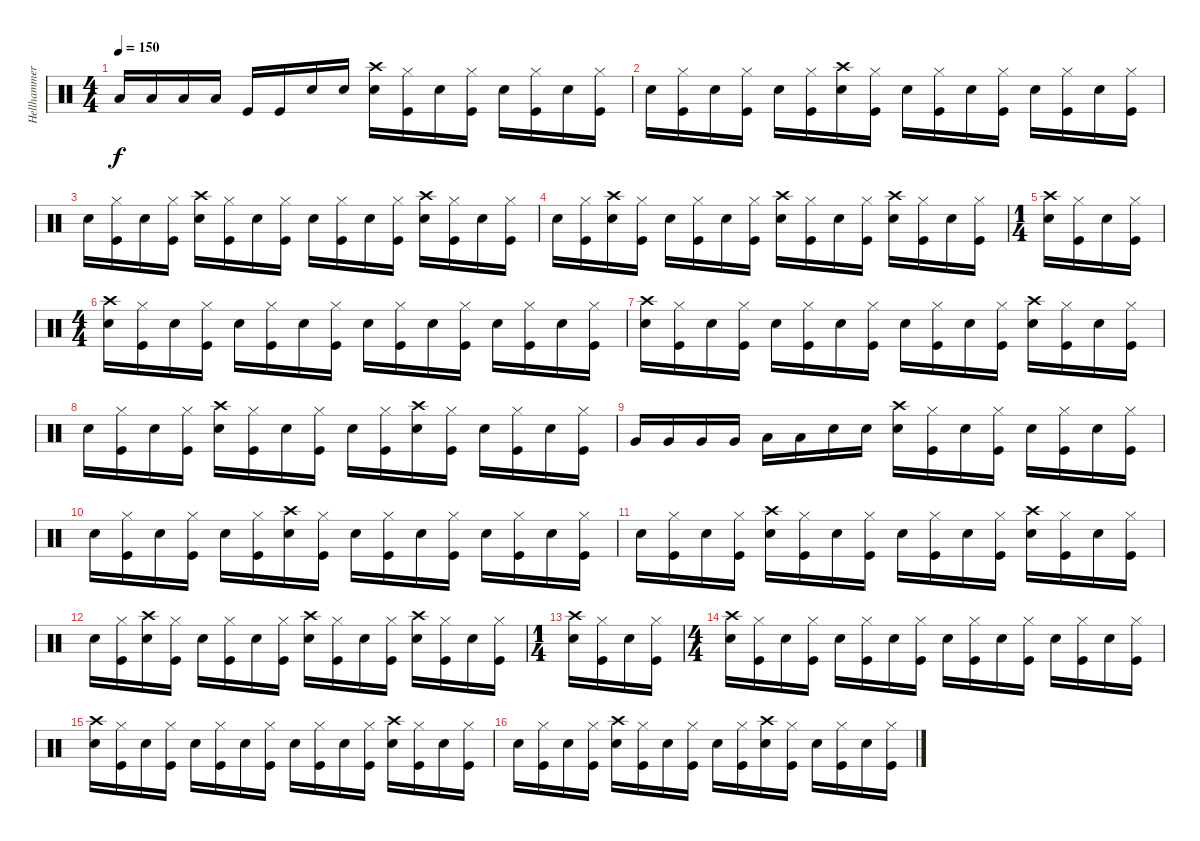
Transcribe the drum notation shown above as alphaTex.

\track ("Hellhammer" "Hellhammer") {instrument percussion}
\staff {score}
\articulation defaults
\ts (4 4)
\tempo 150
\clef neutral
\ks c "Low Floor Tom (hit)".16{dy f} "Low Floor Tom (hit)".16 "Low Floor Tom (hit)".16 "Low Floor Tom (hit)".16 "Kick (hit)".16 "Kick (hit)".16 "Snare (hit) 2".16 "Snare (hit) 2".16
("Snare (hit) 2" "Crash high (hit)").16 ("Kick (hit)" "Hi-Hat (closed)").16 "Snare (hit) 2".16 ("Kick (hit)" "Hi-Hat (closed)").16 "Snare (hit) 2".16 ("Kick (hit)" "Hi-Hat (closed)").16 "Snare (hit) 2".16 ("Kick (hit)" "Hi-Hat (closed)").16 |
"Snare (hit) 2".16 ("Kick (hit)" "Hi-Hat (closed)").16 "Snare (hit) 2".16 ("Kick (hit)" "Hi-Hat (closed)").16 "Snare (hit) 2".16 ("Kick (hit)" "Hi-Hat (closed)").16 ("Snare (hit) 2" "Crash high (hit)").16 ("Kick (hit)" "Hi-Hat (closed)").16 "Snare (hit) 2".16 ("Kick (hit)" "Hi-Hat (closed)").16 "Snare (hit) 2".16 ("Kick (hit)" "Hi-Hat (closed)").16 "Snare (hit) 2".16 ("Kick (hit)" "Hi-Hat (closed)").16 "Snare (hit) 2".16 ("Kick (hit)" "Hi-Hat (closed)").16 |
"Snare (hit) 2".16 ("Kick (hit)" "Hi-Hat (closed)").16 "Snare (hit) 2".16 ("Kick (hit)" "Hi-Hat (closed)").16 ("Snare (hit) 2" "Crash high (hit)").16 ("Kick (hit)" "Hi-Hat (closed)").16 "Snare (hit) 2".16 ("Kick (hit)" "Hi-Hat (closed)").16 "Snare (hit) 2".16 ("Kick (hit)" "Hi-Hat (closed)").16 "Snare (hit) 2".16 ("Kick (hit)" "Hi-Hat (closed)").16 ("Snare (hit) 2" "Crash high (hit)").16 ("Kick (hit)" "Hi-Hat (closed)").16 "Snare (hit) 2".16 ("Kick (hit)" "Hi-Hat (closed)").16 |
"Snare (hit) 2".16 ("Kick (hit)" "Hi-Hat (closed)").16 ("Snare (hit) 2" "Crash high (hit)").16 ("Kick (hit)" "Hi-Hat (closed)").16 "Snare (hit) 2".16 ("Kick (hit)" "Hi-Hat (closed)").16 "Snare (hit) 2".16 ("Kick (hit)" "Hi-Hat (closed)").16 ("Snare (hit) 2" "Crash high (hit)").16 ("Kick (hit)" "Hi-Hat (closed)").16 "Snare (hit) 2".16 ("Kick (hit)" "Hi-Hat (closed)").16 ("Snare (hit) 2" "Crash high (hit)").16 ("Kick (hit)" "Hi-Hat (closed)").16 "Snare (hit) 2".16 ("Kick (hit)" "Hi-Hat (closed)").16 |
\ts (1 4)
("Snare (hit) 2" "Crash high (hit)").16 ("Kick (hit)" "Hi-Hat (closed)").16 "Snare (hit) 2".16 ("Kick (hit)" "Hi-Hat (closed)").16 |
\ts (4 4)
("Snare (hit) 2" "Crash high (hit)").16 ("Kick (hit)" "Hi-Hat (closed)").16 "Snare (hit) 2".16 ("Kick (hit)" "Hi-Hat (closed)").16 "Snare (hit) 2".16 ("Kick (hit)" "Hi-Hat (closed)").16 "Snare (hit) 2".16 ("Kick (hit)" "Hi-Hat (closed)").16 "Snare (hit) 2".16 ("Kick (hit)" "Hi-Hat (closed)").16 "Snare (hit) 2".16 ("Kick (hit)" "Hi-Hat (closed)").16 "Snare (hit) 2".16 ("Kick (hit)" "Hi-Hat (closed)").16 "Snare (hit) 2".16 ("Kick (hit)" "Hi-Hat (closed)").16 |
("Snare (hit) 2" "Crash high (hit)").16 ("Kick (hit)" "Hi-Hat (closed)").16 "Snare (hit) 2".16 ("Kick (hit)" "Hi-Hat (closed)").16 "Snare (hit) 2".16 ("Kick (hit)" "Hi-Hat (closed)").16 "Snare (hit) 2".16 ("Kick (hit)" "Hi-Hat (closed)").16 "Snare (hit) 2".16 ("Kick (hit)" "Hi-Hat (closed)").16 "Snare (hit) 2".16 ("Kick (hit)" "Hi-Hat (closed)").16 ("Snare (hit) 2" "Crash high (hit)").16 ("Kick (hit)" "Hi-Hat (closed)").16 "Snare (hit) 2".16 ("Kick (hit)" "Hi-Hat (closed)").16 |
"Snare (hit) 2".16 ("Kick (hit)" "Hi-Hat (closed)").16 "Snare (hit) 2".16 ("Kick (hit)" "Hi-Hat (closed)").16 ("Snare (hit) 2" "Crash high (hit)").16 ("Kick (hit)" "Hi-Hat (closed)").16 "Snare (hit) 2".16 ("Kick (hit)" "Hi-Hat (closed)").16 "Snare (hit) 2".16 ("Kick (hit)" "Hi-Hat (closed)").16 ("Snare (hit) 2" "Crash high (hit)").16 ("Kick (hit)" "Hi-Hat (closed)").16 "Snare (hit) 2".16 ("Kick (hit)" "Hi-Hat (closed)").16 "Snare (hit) 2".16 ("Kick (hit)" "Hi-Hat (closed)").16 |
"Very Low Tom (hit)".16 "Very Low Tom (hit)".16 "Very Low Tom (hit)".16 "Very Low Tom (hit)".16 "Low Floor Tom (hit)".16 "Low Floor Tom (hit)".16 "Snare (hit) 2".16 "Snare (hit) 2".16 ("Snare (hit) 2" "Crash high (hit)").16 ("Kick (hit)" "Hi-Hat (closed)").16 "Snare (hit) 2".16 ("Kick (hit)" "Hi-Hat (closed)").16 "Snare (hit) 2".16 ("Kick (hit)" "Hi-Hat (closed)").16 "Snare (hit) 2".16 ("Kick (hit)" "Hi-Hat (closed)").16 |
"Snare (hit) 2".16 ("Kick (hit)" "Hi-Hat (closed)").16 "Snare (hit) 2".16 ("Kick (hit)" "Hi-Hat (closed)").16 "Snare (hit) 2".16 ("Kick (hit)" "Hi-Hat (closed)").16 ("Snare (hit) 2" "Crash high (hit)").16 ("Kick (hit)" "Hi-Hat (closed)").16 "Snare (hit) 2".16 ("Kick (hit)" "Hi-Hat (closed)").16 "Snare (hit) 2".16 ("Kick (hit)" "Hi-Hat (closed)").16 "Snare (hit) 2".16 ("Kick (hit)" "Hi-Hat (closed)").16 "Snare (hit) 2".16 ("Kick (hit)" "Hi-Hat (closed)").16 |
"Snare (hit) 2".16 ("Kick (hit)" "Hi-Hat (closed)").16 "Snare (hit) 2".16 ("Kick (hit)" "Hi-Hat (closed)").16 ("Snare (hit) 2" "Crash high (hit)").16 ("Kick (hit)" "Hi-Hat (closed)").16 "Snare (hit) 2".16 ("Kick (hit)" "Hi-Hat (closed)").16 "Snare (hit) 2".16 ("Kick (hit)" "Hi-Hat (closed)").16 "Snare (hit) 2".16 ("Kick (hit)" "Hi-Hat (closed)").16 ("Snare (hit) 2" "Crash high (hit)").16 ("Kick (hit)" "Hi-Hat (closed)").16 "Snare (hit) 2".16 ("Kick (hit)" "Hi-Hat (closed)").16 |
"Snare (hit) 2".16 ("Kick (hit)" "Hi-Hat (closed)").16 ("Snare (hit) 2" "Crash high (hit)").16 ("Kick (hit)" "Hi-Hat (closed)").16 "Snare (hit) 2".16 ("Kick (hit)" "Hi-Hat (closed)").16 "Snare (hit) 2".16 ("Kick (hit)" "Hi-Hat (closed)").16 ("Snare (hit) 2" "Crash high (hit)").16 ("Kick (hit)" "Hi-Hat (closed)").16 "Snare (hit) 2".16 ("Kick (hit)" "Hi-Hat (closed)").16 ("Snare (hit) 2" "Crash high (hit)").16 ("Kick (hit)" "Hi-Hat (closed)").16 "Snare (hit) 2".16 ("Kick (hit)" "Hi-Hat (closed)").16 |
\ts (1 4)
("Snare (hit) 2" "Crash high (hit)").16 ("Kick (hit)" "Hi-Hat (closed)").16 "Snare (hit) 2".16 ("Kick (hit)" "Hi-Hat (closed)").16 |
\ts (4 4)
("Snare (hit) 2" "Crash high (hit)").16 ("Kick (hit)" "Hi-Hat (closed)").16 "Snare (hit) 2".16 ("Kick (hit)" "Hi-Hat (closed)").16 "Snare (hit) 2".16 ("Kick (hit)" "Hi-Hat (closed)").16 "Snare (hit) 2".16 ("Kick (hit)" "Hi-Hat (closed)").16 "Snare (hit) 2".16 ("Kick (hit)" "Hi-Hat (closed)").16 "Snare (hit) 2".16 ("Kick (hit)" "Hi-Hat (closed)").16 "Snare (hit) 2".16 ("Kick (hit)" "Hi-Hat (closed)").16 "Snare (hit) 2".16 ("Kick (hit)" "Hi-Hat (closed)").16 |
("Snare (hit) 2" "Crash high (hit)").16 ("Kick (hit)" "Hi-Hat (closed)").16 "Snare (hit) 2".16 ("Kick (hit)" "Hi-Hat (closed)").16 "Snare (hit) 2".16 ("Kick (hit)" "Hi-Hat (closed)").16 "Snare (hit) 2".16 ("Kick (hit)" "Hi-Hat (closed)").16 "Snare (hit) 2".16 ("Kick (hit)" "Hi-Hat (closed)").16 "Snare (hit) 2".16 ("Kick (hit)" "Hi-Hat (closed)").16 ("Snare (hit) 2" "Crash high (hit)").16 ("Kick (hit)" "Hi-Hat (closed)").16 "Snare (hit) 2".16 ("Kick (hit)" "Hi-Hat (closed)").16 |
"Snare (hit) 2".16 ("Kick (hit)" "Hi-Hat (closed)").16 "Snare (hit) 2".16 ("Kick (hit)" "Hi-Hat (closed)").16 ("Snare (hit) 2" "Crash high (hit)").16 ("Kick (hit)" "Hi-Hat (closed)").16 "Snare (hit) 2".16 ("Kick (hit)" "Hi-Hat (closed)").16 "Snare (hit) 2".16 ("Kick (hit)" "Hi-Hat (closed)").16 ("Snare (hit) 2" "Crash high (hit)").16 ("Kick (hit)" "Hi-Hat (closed)").16 "Snare (hit) 2".16 ("Kick (hit)" "Hi-Hat (closed)").16 "Snare (hit) 2".16 ("Kick (hit)" "Hi-Hat (closed)").16
